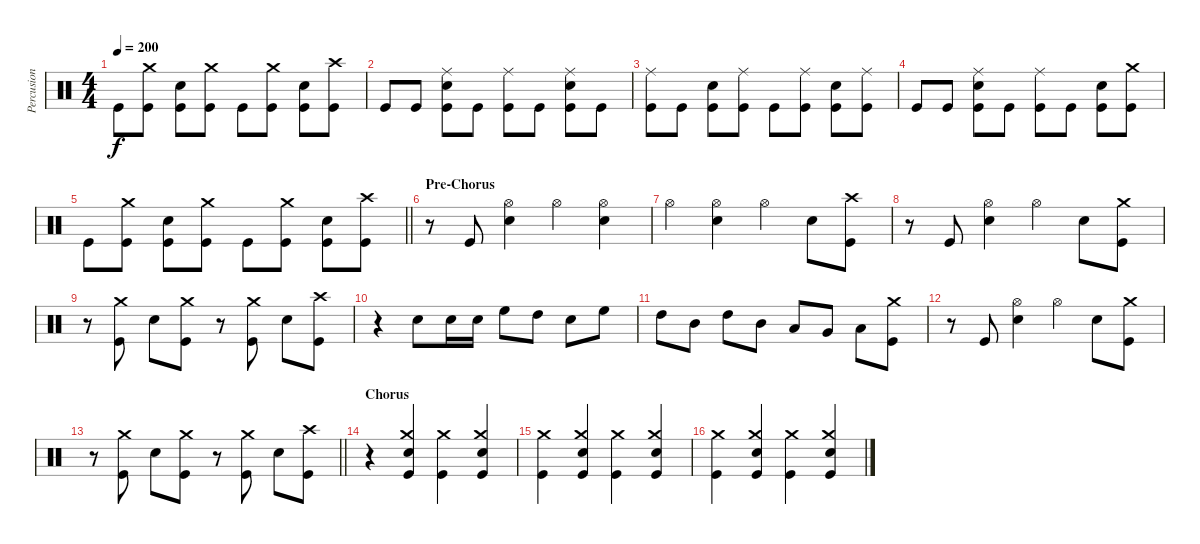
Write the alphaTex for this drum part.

\track ("Percusion" "Percusion") {instrument percussion}
\staff {score}
\articulation defaults
\ts (4 4)
\tempo 200
\clef neutral
\ks c "Kick (hit)".8{dy f}
("Kick (hit)" "Crash medium (hit)").8 ("Kick (hit)" "Snare (hit) 2").8 ("Kick (hit)" "Crash medium (hit)").8 "Kick (hit)".8 ("Kick (hit)" "Crash medium (hit)").8 ("Kick (hit)" "Snare (hit) 2").8 ("Kick (hit)" "Crash high (hit)").8 |
"Kick (hit)".8 "Kick (hit)".8 ("Kick (hit)" "Snare (hit) 2" "Ride (middle)").8 "Kick (hit)".8 ("Kick (hit)" "Ride (middle)").8 "Kick (hit)".8 ("Kick (hit)" "Snare (hit) 2" "Ride (middle)").8 "Kick (hit)".8 |
("Kick (hit)" "Ride (middle)").8 "Kick (hit)".8 ("Kick (hit)" "Snare (hit) 2").8 ("Kick (hit)" "Ride (middle)").8 "Kick (hit)".8 ("Kick (hit)" "Ride (middle)").8 ("Kick (hit)" "Snare (hit) 2").8 ("Kick (hit)" "Ride (middle)").8 |
"Kick (hit)".8 "Kick (hit)".8 ("Kick (hit)" "Ride (middle)" "Snare (hit) 2").8 "Kick (hit)".8 ("Ride (middle)" "Kick (hit)").8 "Kick (hit)".8 ("Kick (hit)" "Snare (hit) 2").8 ("Crash medium (hit)" "Kick (hit)").8 |
\barLineRight lightlight "Kick (hit)".8
("Kick (hit)" "Crash medium (hit)").8 ("Kick (hit)" "Snare (hit) 2").8 ("Kick (hit)" "Crash medium (hit)").8 "Kick (hit)".8 ("Kick (hit)" "Crash medium (hit)").8 ("Kick (hit)" "Snare (hit) 2").8 ("Kick (hit)" "Crash high (hit)").8 |
\section ("" "Pre-Chorus")
r.8 "Kick (hit)".8 ("Hi-Hat (open)" "Snare (hit) 2").4 "Hi-Hat (open)".4 ("Hi-Hat (open)" "Snare (hit) 2").4 |
"Hi-Hat (open)".4 ("Snare (hit) 2" "Hi-Hat (open)").4 "Hi-Hat (open)".4 "Snare (hit) 2".8 ("Kick (hit)" "Crash high (hit)").8 |
r.8 "Kick (hit)".8 ("Hi-Hat (open)" "Snare (hit) 2").4 "Hi-Hat (open)".4 "Snare (hit) 2".8 ("Crash medium (hit)" "Kick (hit)").8 |
r.8 ("Kick (hit)" "Crash medium (hit)").8 "Snare (hit) 2".8 ("Kick (hit)" "Crash medium (hit)").8 r.8 ("Kick (hit)" "Crash medium (hit)").8 "Snare (hit) 2".8 ("Kick (hit)" "Crash high (hit)").8 |
r.4 "Snare (hit) 2".8 "Snare (hit) 2".16 "Snare (hit) 2".16 "High Floor Tom (hit)".8 "High Tom (hit)".8 "Snare (hit) 2".8 "High Floor Tom (hit)".8 |
"High Tom (hit)".8 "Mid Tom (hit)".8 "High Tom (hit)".8 "Mid Tom (hit)".8 "Low Tom (hit)".8 "Very Low Tom (hit)".8 "Low Floor Tom (hit)".8 ("Crash medium (hit)" "Kick (hit)").8 |
r.8 "Kick (hit)".8 ("Hi-Hat (open)" "Snare (hit) 2").4 "Hi-Hat (open)".4 "Snare (hit) 2".8 ("Crash medium (hit)" "Kick (hit)").8 |
\barLineRight lightlight
r.8 ("Kick (hit)" "Crash medium (hit)").8 "Snare (hit) 2".8 ("Kick (hit)" "Crash medium (hit)").8 r.8 ("Kick (hit)" "Crash medium (hit)").8 "Snare (hit) 2".8 ("Kick (hit)" "Crash high (hit)").8 |
\section ("" "Chorus")
r.4 ("Crash medium (hit)" "Kick (hit)" "Snare (hit) 2").4 ("Kick (hit)" "Crash medium (hit)").4 ("Crash medium (hit)" "Kick (hit)" "Snare (hit) 2").4 |
("Kick (hit)" "Crash medium (hit)").4 ("Crash medium (hit)" "Kick (hit)" "Snare (hit) 2").4 ("Kick (hit)" "Crash medium (hit)").4 ("Crash medium (hit)" "Kick (hit)" "Snare (hit) 2").4 |
("Kick (hit)" "Crash medium (hit)").4 ("Crash medium (hit)" "Kick (hit)" "Snare (hit) 2").4 ("Kick (hit)" "Crash medium (hit)").4 ("Crash medium (hit)" "Kick (hit)" "Snare (hit) 2").4
